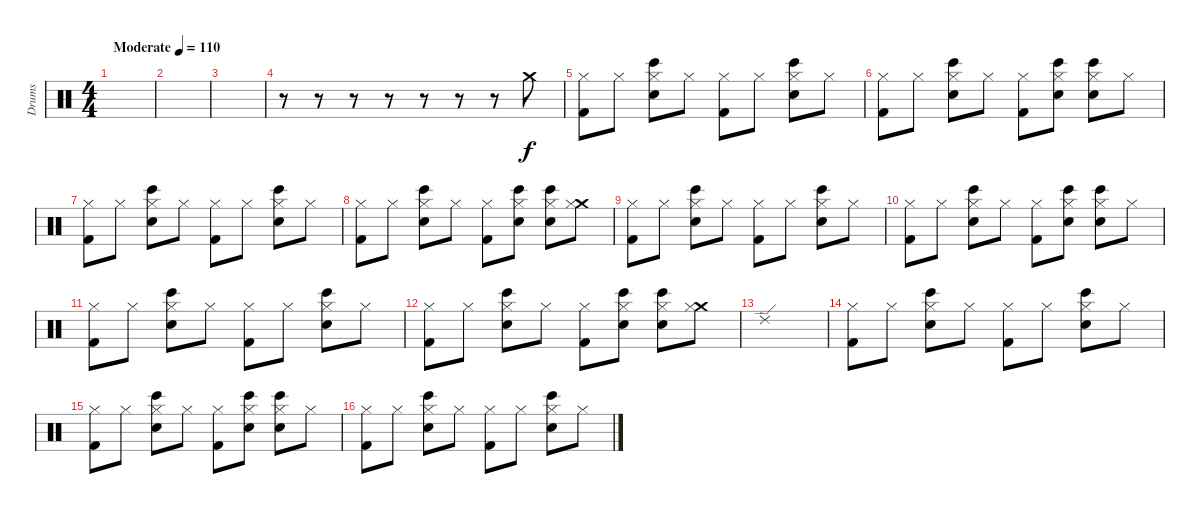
\track ("Drums" "Drums") {instrument percussion}
\staff {score}
\articulation defaults
\ts (4 4)
\tempo (110 "Moderate")
\clef neutral
\ks c
|
|
|
r.8 r.8 r.8 r.8 r.8 r.8 r.8 "Crash medium (hit)".8 |
("Kick (hit) 2" "Hi-Hat (closed)").8 "Hi-Hat (closed)".8 ("Bongo High (hit)" "Snare (hit) 2" "Hi-Hat (closed)").8 "Hi-Hat (closed)".8 ("Kick (hit) 2" "Hi-Hat (closed)").8 "Hi-Hat (closed)".8 ("Bongo High (hit)" "Snare (hit) 2" "Hi-Hat (closed)").8 "Hi-Hat (closed)".8 |
("Kick (hit) 2" "Hi-Hat (closed)").8 "Hi-Hat (closed)".8 ("Bongo High (hit)" "Snare (hit) 2" "Hi-Hat (closed)").8 "Hi-Hat (closed)".8 ("Kick (hit) 2" "Hi-Hat (closed)").8 ("Bongo High (hit)" "Snare (hit) 2" "Hi-Hat (closed)").8 ("Bongo High (hit)" "Snare (hit) 2" "Hi-Hat (closed)").8 "Hi-Hat (closed)".8 |
("Kick (hit) 2" "Hi-Hat (closed)").8 "Hi-Hat (closed)".8 ("Bongo High (hit)" "Snare (hit) 2" "Hi-Hat (closed)").8 "Hi-Hat (closed)".8 ("Kick (hit) 2" "Hi-Hat (closed)").8 "Hi-Hat (closed)".8 ("Bongo High (hit)" "Snare (hit) 2" "Hi-Hat (closed)").8 "Hi-Hat (closed)".8 |
("Kick (hit) 2" "Hi-Hat (closed)").8 "Hi-Hat (closed)".8 ("Bongo High (hit)" "Snare (hit) 2" "Hi-Hat (closed)").8 "Hi-Hat (closed)".8 ("Kick (hit) 2" "Hi-Hat (closed)").8 ("Bongo High (hit)" "Snare (hit) 2" "Hi-Hat (closed)").8 ("Bongo High (hit)" "Snare (hit) 2" "Hi-Hat (closed)").8 ("Crash medium (hit)" "Hi-Hat (closed)").8 |
("Kick (hit) 2" "Hi-Hat (closed)").8 "Hi-Hat (closed)".8 ("Bongo High (hit)" "Snare (hit) 2" "Hi-Hat (closed)").8 "Hi-Hat (closed)".8 ("Kick (hit) 2" "Hi-Hat (closed)").8 "Hi-Hat (closed)".8 ("Bongo High (hit)" "Snare (hit) 2" "Hi-Hat (closed)").8 "Hi-Hat (closed)".8 |
("Kick (hit) 2" "Hi-Hat (closed)").8 "Hi-Hat (closed)".8 ("Bongo High (hit)" "Snare (hit) 2" "Hi-Hat (closed)").8 "Hi-Hat (closed)".8 ("Kick (hit) 2" "Hi-Hat (closed)").8 ("Bongo High (hit)" "Snare (hit) 2" "Hi-Hat (closed)").8 ("Bongo High (hit)" "Snare (hit) 2" "Hi-Hat (closed)").8 "Hi-Hat (closed)".8 |
("Kick (hit) 2" "Hi-Hat (closed)").8 "Hi-Hat (closed)".8 ("Bongo High (hit)" "Snare (hit) 2" "Hi-Hat (closed)").8 "Hi-Hat (closed)".8 ("Kick (hit) 2" "Hi-Hat (closed)").8 "Hi-Hat (closed)".8 ("Bongo High (hit)" "Snare (hit) 2" "Hi-Hat (closed)").8 "Hi-Hat (closed)".8 |
("Kick (hit) 2" "Hi-Hat (closed)").8 "Hi-Hat (closed)".8 ("Bongo High (hit)" "Snare (hit) 2" "Hi-Hat (closed)").8 "Hi-Hat (closed)".8 ("Kick (hit) 2" "Hi-Hat (closed)").8 ("Bongo High (hit)" "Snare (hit) 2" "Hi-Hat (closed)").8 ("Bongo High (hit)" "Snare (hit) 2" "Hi-Hat (closed)").8 ("Crash medium (hit)" "Hi-Hat (closed)").8 |
"Ride (edge) 2".1 |
("Kick (hit) 2" "Hi-Hat (closed)").8 "Hi-Hat (closed)".8 ("Bongo High (hit)" "Snare (hit) 2" "Hi-Hat (closed)").8 "Hi-Hat (closed)".8 ("Kick (hit) 2" "Hi-Hat (closed)").8 "Hi-Hat (closed)".8 ("Bongo High (hit)" "Snare (hit) 2" "Hi-Hat (closed)").8 "Hi-Hat (closed)".8 |
("Kick (hit) 2" "Hi-Hat (closed)").8 "Hi-Hat (closed)".8 ("Bongo High (hit)" "Snare (hit) 2" "Hi-Hat (closed)").8 "Hi-Hat (closed)".8 ("Kick (hit) 2" "Hi-Hat (closed)").8 ("Bongo High (hit)" "Snare (hit) 2" "Hi-Hat (closed)").8 ("Bongo High (hit)" "Snare (hit) 2" "Hi-Hat (closed)").8 "Hi-Hat (closed)".8 |
("Kick (hit) 2" "Hi-Hat (closed)").8 "Hi-Hat (closed)".8 ("Bongo High (hit)" "Snare (hit) 2" "Hi-Hat (closed)").8 "Hi-Hat (closed)".8 ("Kick (hit) 2" "Hi-Hat (closed)").8 "Hi-Hat (closed)".8 ("Bongo High (hit)" "Snare (hit) 2" "Hi-Hat (closed)").8 "Hi-Hat (closed)".8
